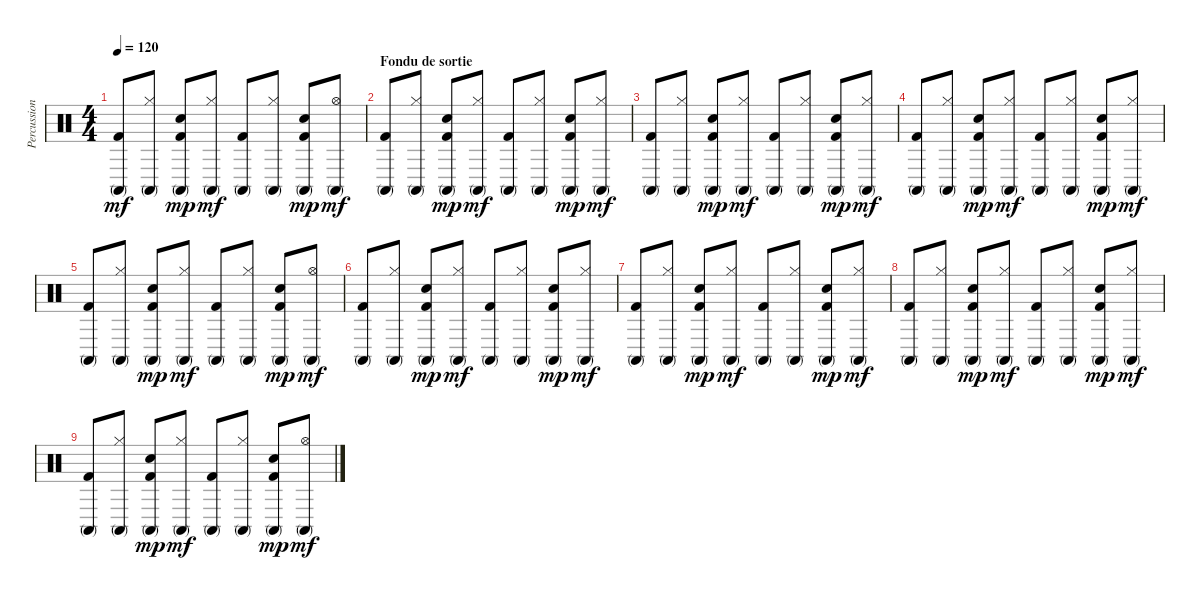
\track ("Percussions" "Percussion") {instrument percussion}
\staff {score}
\articulation defaults
\ts (4 4)
\tempo 120
\clef neutral
\ks c
("Conga high (mute)" "Kick (hit) 2").8{dy mf} ("Hi-Hat (closed)" "Conga high (mute)").8 ("Conga high (mute)" "Electric Snare (hit)" "Kick (hit) 2").8{dy mp} ("Hi-Hat (closed)" "Conga high (mute)").8{dy mf} ("Conga high (mute)" "Kick (hit) 2").8 ("Hi-Hat (closed)" "Conga high (mute)").8 ("Conga high (mute)" "Electric Snare (hit)" "Kick (hit) 2").8{dy mp} ("Hi-Hat (open)" "Conga high (mute)").8{dy mf} |
\section ("" "Fondu de sortie")
("Conga high (mute)" "Kick (hit) 2").8 ("Hi-Hat (closed)" "Conga high (mute)").8 ("Conga high (mute)" "Electric Snare (hit)" "Kick (hit) 2").8{dy mp} ("Hi-Hat (closed)" "Conga high (mute)").8{dy mf} ("Conga high (mute)" "Kick (hit) 2").8 ("Hi-Hat (closed)" "Conga high (mute)").8 ("Conga high (mute)" "Electric Snare (hit)" "Kick (hit) 2").8{dy mp} ("Hi-Hat (closed)" "Conga high (mute)").8{dy mf} |
("Conga high (mute)" "Kick (hit) 2").8 ("Hi-Hat (closed)" "Conga high (mute)").8 ("Conga high (mute)" "Electric Snare (hit)" "Kick (hit) 2").8{dy mp} ("Hi-Hat (closed)" "Conga high (mute)").8{dy mf} ("Conga high (mute)" "Kick (hit) 2").8 ("Hi-Hat (closed)" "Conga high (mute)").8 ("Conga high (mute)" "Electric Snare (hit)" "Kick (hit) 2").8{dy mp} ("Hi-Hat (closed)" "Conga high (mute)").8{dy mf} |
("Conga high (mute)" "Kick (hit) 2").8 ("Hi-Hat (closed)" "Conga high (mute)").8 ("Conga high (mute)" "Electric Snare (hit)" "Kick (hit) 2").8{dy mp} ("Hi-Hat (closed)" "Conga high (mute)").8{dy mf} ("Conga high (mute)" "Kick (hit) 2").8 ("Hi-Hat (closed)" "Conga high (mute)").8 ("Conga high (mute)" "Electric Snare (hit)" "Kick (hit) 2").8{dy mp} ("Hi-Hat (closed)" "Conga high (mute)").8{dy mf} |
("Conga high (mute)" "Kick (hit) 2").8 ("Hi-Hat (closed)" "Conga high (mute)").8 ("Conga high (mute)" "Electric Snare (hit)" "Kick (hit) 2").8{dy mp} ("Hi-Hat (closed)" "Conga high (mute)").8{dy mf} ("Conga high (mute)" "Kick (hit) 2").8 ("Hi-Hat (closed)" "Conga high (mute)").8 ("Conga high (mute)" "Electric Snare (hit)" "Kick (hit) 2").8{dy mp} ("Hi-Hat (open)" "Conga high (mute)").8{dy mf} |
("Conga high (mute)" "Kick (hit) 2").8 ("Hi-Hat (closed)" "Conga high (mute)").8 ("Conga high (mute)" "Electric Snare (hit)" "Kick (hit) 2").8{dy mp} ("Hi-Hat (closed)" "Conga high (mute)").8{dy mf} ("Conga high (mute)" "Kick (hit) 2").8 ("Hi-Hat (closed)" "Conga high (mute)").8 ("Conga high (mute)" "Electric Snare (hit)" "Kick (hit) 2").8{dy mp} ("Hi-Hat (closed)" "Conga high (mute)").8{dy mf} |
("Conga high (mute)" "Kick (hit) 2").8 ("Hi-Hat (closed)" "Conga high (mute)").8 ("Conga high (mute)" "Electric Snare (hit)" "Kick (hit) 2").8{dy mp} ("Hi-Hat (closed)" "Conga high (mute)").8{dy mf} ("Conga high (mute)" "Kick (hit) 2").8 ("Hi-Hat (closed)" "Conga high (mute)").8 ("Conga high (mute)" "Electric Snare (hit)" "Kick (hit) 2").8{dy mp} ("Hi-Hat (closed)" "Conga high (mute)").8{dy mf} |
("Conga high (mute)" "Kick (hit) 2").8 ("Hi-Hat (closed)" "Conga high (mute)").8 ("Conga high (mute)" "Electric Snare (hit)" "Kick (hit) 2").8{dy mp} ("Hi-Hat (closed)" "Conga high (mute)").8{dy mf} ("Conga high (mute)" "Kick (hit) 2").8 ("Hi-Hat (closed)" "Conga high (mute)").8 ("Conga high (mute)" "Electric Snare (hit)" "Kick (hit) 2").8{dy mp} ("Hi-Hat (closed)" "Conga high (mute)").8{dy mf} |
("Conga high (mute)" "Kick (hit) 2").8 ("Hi-Hat (closed)" "Conga high (mute)").8 ("Conga high (mute)" "Electric Snare (hit)" "Kick (hit) 2").8{dy mp} ("Hi-Hat (closed)" "Conga high (mute)").8{dy mf} ("Conga high (mute)" "Kick (hit) 2").8 ("Hi-Hat (closed)" "Conga high (mute)").8 ("Conga high (mute)" "Electric Snare (hit)" "Kick (hit) 2").8{dy mp} ("Hi-Hat (open)" "Conga high (mute)").8{dy mf}
